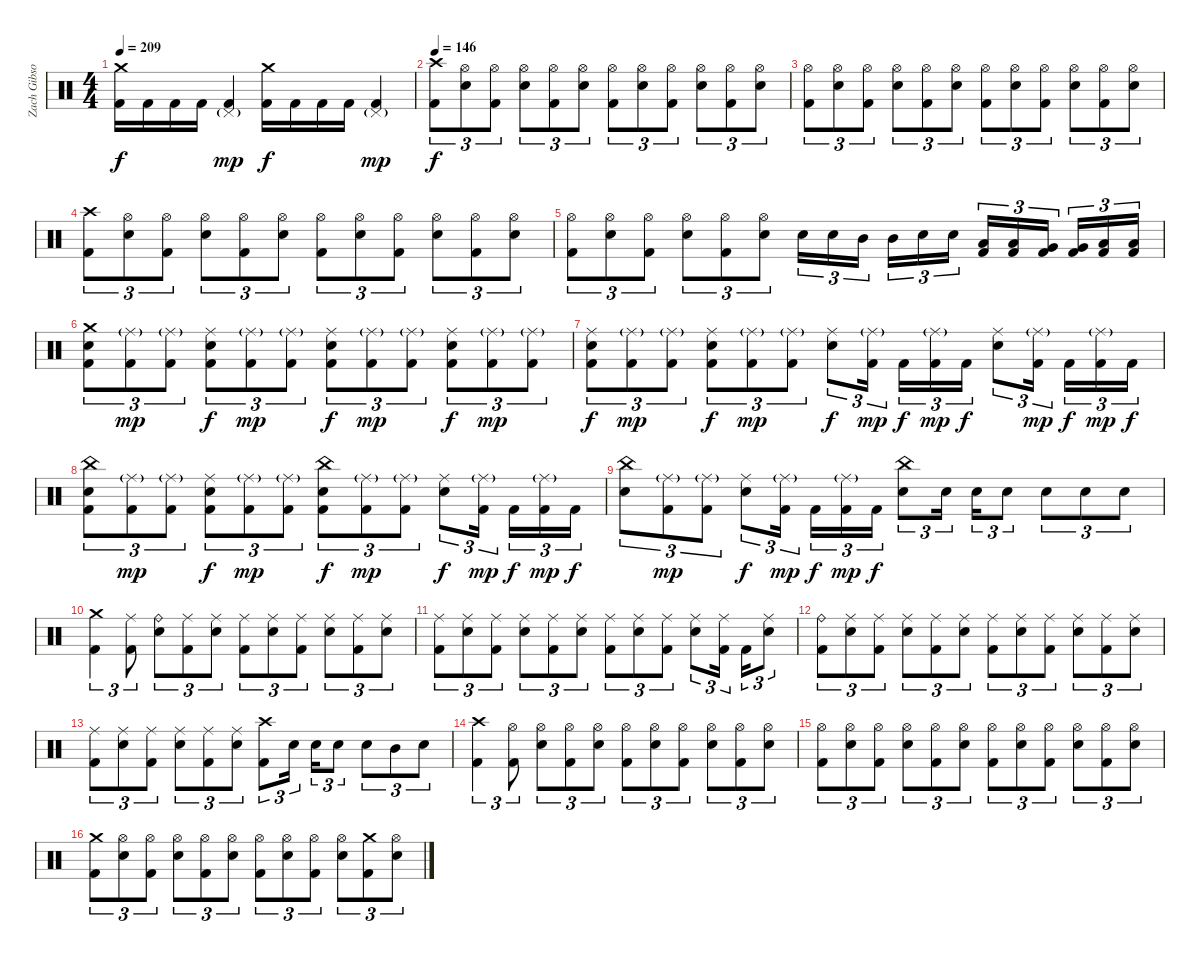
\track ("Zach Gibson (Drums)" "Zach Gibso") {instrument percussion}
\staff {score}
\articulation defaults
\ts (4 4)
\tempo 209
\clef neutral
\ks c
("Crash medium (hit)" "Kick (hit) 2").16{dy f} "Kick (hit) 2".16 "Kick (hit) 2".16 "Kick (hit) 2".16 ("Pedal Hi-Hat (hit)"{g} "Kick (hit) 2").4{dy mp} ("Crash medium (hit)" "Kick (hit) 2").16{dy f} "Kick (hit) 2".16 "Kick (hit) 2".16 "Kick (hit) 2".16 ("Pedal Hi-Hat (hit)"{g} "Kick (hit) 2").4{dy mp} |
\tempo 146
("Crash high (hit)" "Kick (hit) 2").8{tu (3 2) dy f} ("Hi-Hat (open)" "Snare (hit) 2").8{tu (3 2)} ("Hi-Hat (open)" "Kick (hit) 2").8{tu (3 2)} ("Hi-Hat (open)" "Snare (hit) 2").8{tu (3 2)} ("Hi-Hat (open)" "Kick (hit) 2").8{tu (3 2)} ("Hi-Hat (open)" "Snare (hit) 2").8{tu (3 2)} ("Hi-Hat (open)" "Kick (hit) 2").8{tu (3 2)} ("Hi-Hat (open)" "Snare (hit) 2").8{tu (3 2)} ("Hi-Hat (open)" "Kick (hit) 2").8{tu (3 2)} ("Hi-Hat (open)" "Snare (hit) 2").8{tu (3 2)} ("Hi-Hat (open)" "Kick (hit) 2").8{tu (3 2)} ("Hi-Hat (open)" "Snare (hit) 2").8{tu (3 2)} |
("Hi-Hat (open)" "Kick (hit) 2").8{tu (3 2)} ("Hi-Hat (open)" "Snare (hit) 2").8{tu (3 2)} ("Hi-Hat (open)" "Kick (hit) 2").8{tu (3 2)} ("Hi-Hat (open)" "Snare (hit) 2").8{tu (3 2)} ("Hi-Hat (open)" "Kick (hit) 2").8{tu (3 2)} ("Hi-Hat (open)" "Snare (hit) 2").8{tu (3 2)} ("Hi-Hat (open)" "Kick (hit) 2").8{tu (3 2)} ("Hi-Hat (open)" "Snare (hit) 2").8{tu (3 2)} ("Hi-Hat (open)" "Kick (hit) 2").8{tu (3 2)} ("Hi-Hat (open)" "Snare (hit) 2").8{tu (3 2)} ("Hi-Hat (open)" "Kick (hit) 2").8{tu (3 2)} ("Hi-Hat (open)" "Snare (hit) 2").8{tu (3 2)} |
("Crash high (hit)" "Kick (hit) 2").8{tu (3 2)} ("Hi-Hat (open)" "Snare (hit) 2").8{tu (3 2)} ("Hi-Hat (open)" "Kick (hit) 2").8{tu (3 2)} ("Hi-Hat (open)" "Snare (hit) 2").8{tu (3 2)} ("Hi-Hat (open)" "Kick (hit) 2").8{tu (3 2)} ("Hi-Hat (open)" "Snare (hit) 2").8{tu (3 2)} ("Hi-Hat (open)" "Kick (hit) 2").8{tu (3 2)} ("Hi-Hat (open)" "Snare (hit) 2").8{tu (3 2)} ("Hi-Hat (open)" "Kick (hit) 2").8{tu (3 2)} ("Hi-Hat (open)" "Snare (hit) 2").8{tu (3 2)} ("Hi-Hat (open)" "Kick (hit) 2").8{tu (3 2)} ("Hi-Hat (open)" "Snare (hit) 2").8{tu (3 2)} |
("Hi-Hat (open)" "Kick (hit) 2").8{tu (3 2)} ("Hi-Hat (open)" "Snare (hit) 2").8{tu (3 2)} ("Hi-Hat (open)" "Kick (hit) 2").8{tu (3 2)} ("Hi-Hat (open)" "Snare (hit) 2").8{tu (3 2)} ("Hi-Hat (open)" "Kick (hit) 2").8{tu (3 2)} ("Hi-Hat (open)" "Snare (hit) 2").8{tu (3 2)} "Snare (hit) 2".16{tu (3 2)} "Snare (hit) 2".16{tu (3 2)} "Mid Tom (hit)".16{tu (3 2)} "Mid Tom (hit)".16{tu (3 2)} "Snare (hit) 2".16{tu (3 2)} "Snare (hit) 2".16{tu (3 2)} ("Low Tom (hit)" "Kick (hit) 2").16{tu (3 2)} ("Low Tom (hit)" "Kick (hit) 2").16{tu (3 2)} ("Very Low Tom (hit)" "Kick (hit) 2").16{tu (3 2)} ("Very Low Tom (hit)" "Kick (hit) 2").16{tu (3 2)} ("Low Floor Tom (hit)" "Kick (hit) 2").16{tu (3 2)} ("Low Floor Tom (hit)" "Kick (hit) 2").16{tu (3 2)} |
("Crash medium (hit)" "Snare (hit) 2" "Kick (hit) 2").8{tu (3 2)} ("Ride (middle)"{g} "Kick (hit) 2").8{tu (3 2) dy mp} ("Ride (middle)"{g} "Kick (hit) 2").8{tu (3 2)} ("Ride (middle)" "Snare (hit) 2" "Kick (hit) 2").8{tu (3 2) dy f} ("Ride (middle)"{g} "Kick (hit) 2").8{tu (3 2) dy mp} ("Ride (middle)"{g} "Kick (hit) 2").8{tu (3 2)} ("Ride (middle)" "Snare (hit) 2" "Kick (hit) 2").8{tu (3 2) dy f} ("Ride (middle)"{g} "Kick (hit) 2").8{tu (3 2) dy mp} ("Ride (middle)"{g} "Kick (hit) 2").8{tu (3 2)} ("Ride (middle)" "Snare (hit) 2" "Kick (hit) 2").8{tu (3 2) dy f} ("Ride (middle)"{g} "Kick (hit) 2").8{tu (3 2) dy mp} ("Ride (middle)"{g} "Kick (hit) 2").8{tu (3 2)} |
("Ride (middle)" "Snare (hit) 2" "Kick (hit) 2").8{tu (3 2) dy f} ("Ride (middle)"{g} "Kick (hit) 2").8{tu (3 2) dy mp} ("Ride (middle)"{g} "Kick (hit) 2").8{tu (3 2)} ("Ride (middle)" "Snare (hit) 2" "Kick (hit) 2").8{tu (3 2) dy f} ("Ride (middle)"{g} "Kick (hit) 2").8{tu (3 2) dy mp} ("Ride (middle)"{g} "Kick (hit) 2").8{tu (3 2)} ("Ride (middle)" "Snare (hit) 2").8{tu (3 2) dy f} ("Ride (middle)"{g} "Kick (hit) 2").16{tu (3 2) dy mp} "Kick (hit) 2".16{tu (3 2) dy f} ("Ride (middle)"{g} "Kick (hit) 2").16{tu (3 2) dy mp} "Kick (hit) 2".16{tu (3 2) dy f} ("Ride (middle)" "Snare (hit) 2").8{tu (3 2)} ("Ride (middle)"{g} "Kick (hit) 2").16{tu (3 2) dy mp} "Kick (hit) 2".16{tu (3 2) dy f} ("Ride (middle)"{g} "Kick (hit) 2").16{tu (3 2) dy mp} "Kick (hit) 2".16{tu (3 2) dy f} |
("China (hit)" "Snare (hit) 2" "Kick (hit) 2").8{tu (3 2)} ("Ride (middle)"{g} "Kick (hit) 2").8{tu (3 2) dy mp} ("Ride (middle)"{g} "Kick (hit) 2").8{tu (3 2)} ("Ride (middle)" "Snare (hit) 2" "Kick (hit) 2").8{tu (3 2) dy f} ("Ride (middle)"{g} "Kick (hit) 2").8{tu (3 2) dy mp} ("Ride (middle)"{g} "Kick (hit) 2").8{tu (3 2)} ("China (hit)" "Snare (hit) 2" "Kick (hit) 2").8{tu (3 2) dy f} ("Ride (middle)"{g} "Kick (hit) 2").8{tu (3 2) dy mp} ("Ride (middle)"{g} "Kick (hit) 2").8{tu (3 2)} ("Ride (middle)" "Snare (hit) 2").8{tu (3 2) dy f} ("Ride (middle)"{g} "Kick (hit) 2").16{tu (3 2) dy mp} "Kick (hit) 2".16{tu (3 2) dy f} ("Ride (middle)"{g} "Kick (hit) 2").16{tu (3 2) dy mp} "Kick (hit) 2".16{tu (3 2) dy f} |
("China (hit)" "Snare (hit) 2").8{tu (3 2)} ("Ride (middle)"{g} "Kick (hit) 2").8{tu (3 2) dy mp} ("Ride (middle)"{g} "Kick (hit) 2").8{tu (3 2)} ("Ride (middle)" "Snare (hit) 2").8{tu (3 2) dy f} ("Ride (middle)"{g} "Kick (hit) 2").16{tu (3 2) dy mp} "Kick (hit) 2".16{tu (3 2) dy f} ("Ride (middle)"{g} "Kick (hit) 2").16{tu (3 2) dy mp} "Kick (hit) 2".16{tu (3 2) dy f} ("China (hit)" "Snare (hit) 2").8{tu (3 2)} "Snare (hit) 2".16{tu (3 2)} "Snare (hit) 2".16{tu (3 2)} "Snare (hit) 2".8{tu (3 2)} "Snare (hit) 2".8{tu (3 2)} "Snare (hit) 2".8{tu (3 2)} "Snare (hit) 2".8{tu (3 2)} |
("Crash medium (hit)" "Kick (hit) 2").4{tu (3 2)} ("Ride (middle)" "Kick (hit) 2").8{tu (3 2)} ("Ride (bell)" "Snare (hit) 2").8{tu (3 2)} ("Ride (middle)" "Kick (hit) 2").8{tu (3 2)} ("Ride (middle)" "Snare (hit) 2").8{tu (3 2)} ("Ride (middle)" "Kick (hit) 2").8{tu (3 2)} ("Ride (middle)" "Snare (hit) 2").8{tu (3 2)} ("Ride (middle)" "Kick (hit) 2").8{tu (3 2)} ("Ride (middle)" "Snare (hit) 2").8{tu (3 2)} ("Ride (middle)" "Kick (hit) 2").8{tu (3 2)} ("Ride (middle)" "Snare (hit) 2").8{tu (3 2)} |
("Ride (middle)" "Kick (hit) 2").8{tu (3 2)} ("Ride (middle)" "Snare (hit) 2").8{tu (3 2)} ("Ride (middle)" "Kick (hit) 2").8{tu (3 2)} ("Ride (middle)" "Snare (hit) 2").8{tu (3 2)} ("Ride (middle)" "Kick (hit) 2").8{tu (3 2)} ("Ride (middle)" "Snare (hit) 2").8{tu (3 2)} ("Ride (middle)" "Kick (hit) 2").8{tu (3 2)} ("Ride (middle)" "Snare (hit) 2").8{tu (3 2)} ("Ride (middle)" "Kick (hit) 2").8{tu (3 2)} ("Ride (middle)" "Snare (hit) 2").8{tu (3 2)} ("Ride (middle)" "Kick (hit) 2").16{tu (3 2)} "Kick (hit) 2".16{tu (3 2)} ("Ride (middle)" "Snare (hit) 2").8{tu (3 2)} |
("Ride (bell)" "Kick (hit) 2").8{tu (3 2)} ("Ride (middle)" "Snare (hit) 2").8{tu (3 2)} ("Ride (middle)" "Kick (hit) 2").8{tu (3 2)} ("Ride (middle)" "Snare (hit) 2").8{tu (3 2)} ("Ride (middle)" "Kick (hit) 2").8{tu (3 2)} ("Ride (middle)" "Snare (hit) 2").8{tu (3 2)} ("Ride (middle)" "Kick (hit) 2").8{tu (3 2)} ("Ride (middle)" "Snare (hit) 2").8{tu (3 2)} ("Ride (middle)" "Kick (hit) 2").8{tu (3 2)} ("Ride (middle)" "Snare (hit) 2").8{tu (3 2)} ("Ride (middle)" "Kick (hit) 2").8{tu (3 2)} ("Ride (middle)" "Snare (hit) 2").8{tu (3 2)} |
("Ride (middle)" "Kick (hit) 2").8{tu (3 2)} ("Ride (middle)" "Snare (hit) 2").8{tu (3 2)} ("Ride (middle)" "Kick (hit) 2").8{tu (3 2)} ("Ride (middle)" "Snare (hit) 2").8{tu (3 2)} ("Ride (middle)" "Kick (hit) 2").8{tu (3 2)} ("Ride (middle)" "Snare (hit) 2").8{tu (3 2)} ("Crash high (hit)" "Kick (hit) 2").8{tu (3 2)} "Snare (hit) 2".16{tu (3 2)} "Snare (hit) 2".16{tu (3 2)} "Snare (hit) 2".8{tu (3 2)} "Snare (hit) 2".8{tu (3 2)} "Mid Tom (hit)".8{tu (3 2)} "Snare (hit) 2".8{tu (3 2)} |
("Crash high (hit)" "Kick (hit) 2").4{tu (3 2)} ("Hi-Hat (open)" "Kick (hit) 2").8{tu (3 2)} ("Hi-Hat (open)" "Snare (hit) 2").8{tu (3 2)} ("Hi-Hat (open)" "Kick (hit) 2").8{tu (3 2)} ("Hi-Hat (open)" "Snare (hit) 2").8{tu (3 2)} ("Hi-Hat (open)" "Kick (hit) 2").8{tu (3 2)} ("Hi-Hat (open)" "Snare (hit) 2").8{tu (3 2)} ("Hi-Hat (open)" "Kick (hit) 2").8{tu (3 2)} ("Hi-Hat (open)" "Snare (hit) 2").8{tu (3 2)} ("Hi-Hat (open)" "Kick (hit) 2").8{tu (3 2)} ("Hi-Hat (open)" "Snare (hit) 2").8{tu (3 2)} |
("Hi-Hat (open)" "Kick (hit) 2").8{tu (3 2)} ("Hi-Hat (open)" "Snare (hit) 2").8{tu (3 2)} ("Hi-Hat (open)" "Kick (hit) 2").8{tu (3 2)} ("Hi-Hat (open)" "Snare (hit) 2").8{tu (3 2)} ("Hi-Hat (open)" "Kick (hit) 2").8{tu (3 2)} ("Hi-Hat (open)" "Snare (hit) 2").8{tu (3 2)} ("Hi-Hat (open)" "Kick (hit) 2").8{tu (3 2)} ("Hi-Hat (open)" "Snare (hit) 2").8{tu (3 2)} ("Hi-Hat (open)" "Kick (hit) 2").8{tu (3 2)} ("Hi-Hat (open)" "Snare (hit) 2").8{tu (3 2)} ("Hi-Hat (open)" "Kick (hit) 2").8{tu (3 2)} ("Hi-Hat (open)" "Snare (hit) 2").8{tu (3 2)} |
("Crash medium (hit)" "Kick (hit) 2").8{tu (3 2)} ("Hi-Hat (open)" "Snare (hit) 2").8{tu (3 2)} ("Hi-Hat (open)" "Kick (hit) 2").8{tu (3 2)} ("Hi-Hat (open)" "Snare (hit) 2").8{tu (3 2)} ("Hi-Hat (open)" "Kick (hit) 2").8{tu (3 2)} ("Hi-Hat (open)" "Snare (hit) 2").8{tu (3 2)} ("Hi-Hat (open)" "Kick (hit) 2").8{tu (3 2)} ("Hi-Hat (open)" "Snare (hit) 2").8{tu (3 2)} ("Hi-Hat (open)" "Kick (hit) 2").8{tu (3 2)} ("Hi-Hat (open)" "Snare (hit) 2").8{tu (3 2)} ("Crash medium (hit)" "Kick (hit) 2").8{tu (3 2)} ("Hi-Hat (open)" "Snare (hit) 2").8{tu (3 2)}
